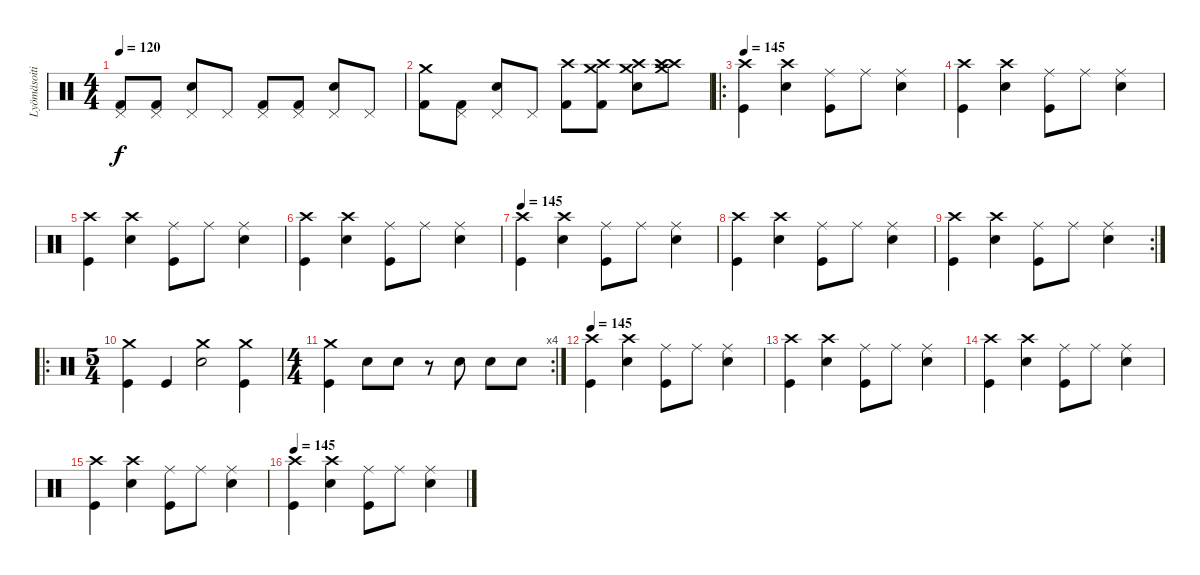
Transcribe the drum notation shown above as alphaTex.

\track ("Lyömäsoitin" "Lyömäsoiti") {instrument percussion}
\staff {score}
\articulation defaults
\ts (4 4)
\tempo 120
\clef neutral
\ks c
("Pedal Hi-Hat (hit)" "Kick (hit) 2").8{dy f} ("Pedal Hi-Hat (hit)" "Kick (hit) 2").8 ("Pedal Hi-Hat (hit)" "Snare (hit) 2").8 "Pedal Hi-Hat (hit)".8 ("Pedal Hi-Hat (hit)" "Kick (hit) 2").8 ("Pedal Hi-Hat (hit)" "Kick (hit) 2").8 ("Pedal Hi-Hat (hit)" "Snare (hit) 2").8 "Pedal Hi-Hat (hit)".8 |
("Crash medium (hit)" "Kick (hit) 2").8 ("Pedal Hi-Hat (hit)" "Kick (hit) 2").8 ("Pedal Hi-Hat (hit)" "Snare (hit) 2").8 "Pedal Hi-Hat (hit)".8 ("Crash high (hit)" "Kick (hit) 2").8 ("Crash medium (hit)" "Crash high (hit)" "Kick (hit) 2").8 ("Crash medium (hit)" "Crash high (hit)" "Snare (hit) 2").8 ("Crash high (hit)" "Crash medium (hit)" "Crash high (hit)").8 |
\ro
\tempo 145
("Crash high (hit)" "Kick (hit)").4 ("Crash high (hit)" "Snare (hit) 2").4 ("Ride (middle)" "Kick (hit)").8 "Ride (middle)".8 ("Ride (middle)" "Snare (hit) 2").4 |
("Crash high (hit)" "Kick (hit)").4 ("Crash high (hit)" "Snare (hit) 2").4 ("Ride (middle)" "Kick (hit)").8 "Ride (middle)".8 ("Ride (middle)" "Snare (hit) 2").4 |
("Crash high (hit)" "Kick (hit)").4 ("Crash high (hit)" "Snare (hit) 2").4 ("Ride (middle)" "Kick (hit)").8 "Ride (middle)".8 ("Ride (middle)" "Snare (hit) 2").4 |
("Crash high (hit)" "Kick (hit)").4 ("Crash high (hit)" "Snare (hit) 2").4 ("Ride (middle)" "Kick (hit)").8 "Ride (middle)".8 ("Ride (middle)" "Snare (hit) 2").4 |
\tempo 145
("Crash high (hit)" "Kick (hit)").4 ("Crash high (hit)" "Snare (hit) 2").4 ("Ride (middle)" "Kick (hit)").8 "Ride (middle)".8 ("Ride (middle)" "Snare (hit) 2").4 |
("Crash high (hit)" "Kick (hit)").4 ("Crash high (hit)" "Snare (hit) 2").4 ("Ride (middle)" "Kick (hit)").8 "Ride (middle)".8 ("Ride (middle)" "Snare (hit) 2").4 |
\rc 2
("Crash high (hit)" "Kick (hit)").4 ("Crash high (hit)" "Snare (hit) 2").4 ("Ride (middle)" "Kick (hit)").8 "Ride (middle)".8 ("Ride (middle)" "Snare (hit) 2").4 |
\ro
\ts (5 4)
("Crash medium (hit)" "Kick (hit)").4 "Kick (hit)".4 ("Crash medium (hit)" "Snare (hit) 2").2 ("Crash medium (hit)" "Kick (hit)").4 |
\rc 4
\ts (4 4)
("Crash medium (hit)" "Kick (hit)").4 "Snare (hit) 2".8 "Snare (hit) 2".8 r.8 "Snare (hit) 2".8 "Snare (hit) 2".8 "Snare (hit) 2".8 |
\tempo 145
("Crash high (hit)" "Kick (hit)").4 ("Crash high (hit)" "Snare (hit) 2").4 ("Ride (middle)" "Kick (hit)").8 "Ride (middle)".8 ("Ride (middle)" "Snare (hit) 2").4 |
("Crash high (hit)" "Kick (hit)").4 ("Crash high (hit)" "Snare (hit) 2").4 ("Ride (middle)" "Kick (hit)").8 "Ride (middle)".8 ("Ride (middle)" "Snare (hit) 2").4 |
("Crash high (hit)" "Kick (hit)").4 ("Crash high (hit)" "Snare (hit) 2").4 ("Ride (middle)" "Kick (hit)").8 "Ride (middle)".8 ("Ride (middle)" "Snare (hit) 2").4 |
("Crash high (hit)" "Kick (hit)").4 ("Crash high (hit)" "Snare (hit) 2").4 ("Ride (middle)" "Kick (hit)").8 "Ride (middle)".8 ("Ride (middle)" "Snare (hit) 2").4 |
\tempo 145
("Crash high (hit)" "Kick (hit)").4 ("Crash high (hit)" "Snare (hit) 2").4 ("Ride (middle)" "Kick (hit)").8 "Ride (middle)".8 ("Ride (middle)" "Snare (hit) 2").4
